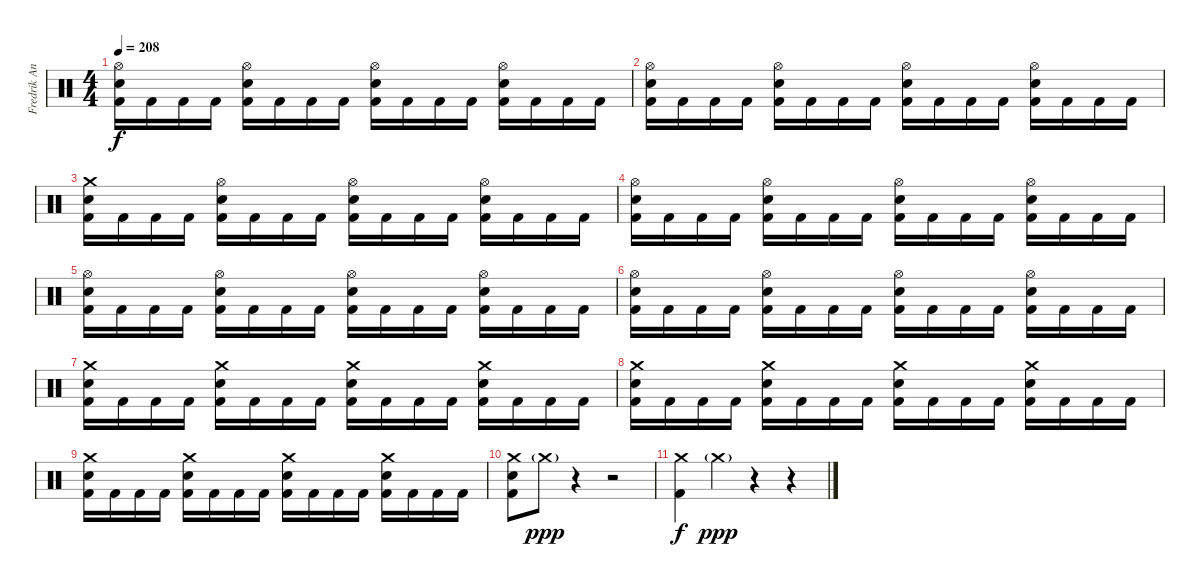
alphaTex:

\track ("Fredrik Andersson" "Fredrik An") {instrument percussion}
\staff {score}
\articulation defaults
\ts (4 4)
\tempo 208
\clef neutral
\ks c
("Hi-Hat (open)" "Electric Snare (hit)" "Kick (hit) 2").16{dy f} "Kick (hit) 2".16 "Kick (hit) 2".16 "Kick (hit) 2".16 ("Hi-Hat (open)" "Electric Snare (hit)" "Kick (hit) 2").16 "Kick (hit) 2".16 "Kick (hit) 2".16 "Kick (hit) 2".16 ("Hi-Hat (open)" "Electric Snare (hit)" "Kick (hit) 2").16 "Kick (hit) 2".16 "Kick (hit) 2".16 "Kick (hit) 2".16 ("Hi-Hat (open)" "Electric Snare (hit)" "Kick (hit) 2").16 "Kick (hit) 2".16 "Kick (hit) 2".16 "Kick (hit) 2".16 |
("Hi-Hat (open)" "Electric Snare (hit)" "Kick (hit) 2").16 "Kick (hit) 2".16 "Kick (hit) 2".16 "Kick (hit) 2".16 ("Hi-Hat (open)" "Electric Snare (hit)" "Kick (hit) 2").16 "Kick (hit) 2".16 "Kick (hit) 2".16 "Kick (hit) 2".16 ("Hi-Hat (open)" "Electric Snare (hit)" "Kick (hit) 2").16 "Kick (hit) 2".16 "Kick (hit) 2".16 "Kick (hit) 2".16 ("Hi-Hat (open)" "Electric Snare (hit)" "Kick (hit) 2").16 "Kick (hit) 2".16 "Kick (hit) 2".16 "Kick (hit) 2".16 |
("Crash medium (hit)" "Electric Snare (hit)" "Kick (hit) 2").16 "Kick (hit) 2".16 "Kick (hit) 2".16 "Kick (hit) 2".16 ("Hi-Hat (open)" "Electric Snare (hit)" "Kick (hit) 2").16 "Kick (hit) 2".16 "Kick (hit) 2".16 "Kick (hit) 2".16 ("Hi-Hat (open)" "Electric Snare (hit)" "Kick (hit) 2").16 "Kick (hit) 2".16 "Kick (hit) 2".16 "Kick (hit) 2".16 ("Hi-Hat (open)" "Electric Snare (hit)" "Kick (hit) 2").16 "Kick (hit) 2".16 "Kick (hit) 2".16 "Kick (hit) 2".16 |
("Hi-Hat (open)" "Electric Snare (hit)" "Kick (hit) 2").16 "Kick (hit) 2".16 "Kick (hit) 2".16 "Kick (hit) 2".16 ("Hi-Hat (open)" "Electric Snare (hit)" "Kick (hit) 2").16 "Kick (hit) 2".16 "Kick (hit) 2".16 "Kick (hit) 2".16 ("Hi-Hat (open)" "Electric Snare (hit)" "Kick (hit) 2").16 "Kick (hit) 2".16 "Kick (hit) 2".16 "Kick (hit) 2".16 ("Hi-Hat (open)" "Electric Snare (hit)" "Kick (hit) 2").16 "Kick (hit) 2".16 "Kick (hit) 2".16 "Kick (hit) 2".16 |
("Hi-Hat (open)" "Electric Snare (hit)" "Kick (hit) 2").16 "Kick (hit) 2".16 "Kick (hit) 2".16 "Kick (hit) 2".16 ("Hi-Hat (open)" "Electric Snare (hit)" "Kick (hit) 2").16 "Kick (hit) 2".16 "Kick (hit) 2".16 "Kick (hit) 2".16 ("Hi-Hat (open)" "Electric Snare (hit)" "Kick (hit) 2").16 "Kick (hit) 2".16 "Kick (hit) 2".16 "Kick (hit) 2".16 ("Hi-Hat (open)" "Electric Snare (hit)" "Kick (hit) 2").16 "Kick (hit) 2".16 "Kick (hit) 2".16 "Kick (hit) 2".16 |
("Hi-Hat (open)" "Electric Snare (hit)" "Kick (hit) 2").16 "Kick (hit) 2".16 "Kick (hit) 2".16 "Kick (hit) 2".16 ("Hi-Hat (open)" "Electric Snare (hit)" "Kick (hit) 2").16 "Kick (hit) 2".16 "Kick (hit) 2".16 "Kick (hit) 2".16 ("Hi-Hat (open)" "Electric Snare (hit)" "Kick (hit) 2").16 "Kick (hit) 2".16 "Kick (hit) 2".16 "Kick (hit) 2".16 ("Hi-Hat (open)" "Electric Snare (hit)" "Kick (hit) 2").16 "Kick (hit) 2".16 "Kick (hit) 2".16 "Kick (hit) 2".16 |
("Crash medium (hit)" "Electric Snare (hit)" "Kick (hit) 2").16 "Kick (hit) 2".16 "Kick (hit) 2".16 "Kick (hit) 2".16 ("Crash medium (hit)" "Electric Snare (hit)" "Kick (hit) 2").16 "Kick (hit) 2".16 "Kick (hit) 2".16 "Kick (hit) 2".16 ("Crash medium (hit)" "Electric Snare (hit)" "Kick (hit) 2").16 "Kick (hit) 2".16 "Kick (hit) 2".16 "Kick (hit) 2".16 ("Crash medium (hit)" "Electric Snare (hit)" "Kick (hit) 2").16 "Kick (hit) 2".16 "Kick (hit) 2".16 "Kick (hit) 2".16 |
("Crash medium (hit)" "Electric Snare (hit)" "Kick (hit) 2").16 "Kick (hit) 2".16 "Kick (hit) 2".16 "Kick (hit) 2".16 ("Crash medium (hit)" "Electric Snare (hit)" "Kick (hit) 2").16 "Kick (hit) 2".16 "Kick (hit) 2".16 "Kick (hit) 2".16 ("Crash medium (hit)" "Electric Snare (hit)" "Kick (hit) 2").16 "Kick (hit) 2".16 "Kick (hit) 2".16 "Kick (hit) 2".16 ("Crash medium (hit)" "Electric Snare (hit)" "Kick (hit) 2").16 "Kick (hit) 2".16 "Kick (hit) 2".16 "Kick (hit) 2".16 |
("Crash medium (hit)" "Electric Snare (hit)" "Kick (hit) 2").16 "Kick (hit) 2".16 "Kick (hit) 2".16 "Kick (hit) 2".16 ("Crash medium (hit)" "Electric Snare (hit)" "Kick (hit) 2").16 "Kick (hit) 2".16 "Kick (hit) 2".16 "Kick (hit) 2".16 ("Crash medium (hit)" "Electric Snare (hit)" "Kick (hit) 2").16 "Kick (hit) 2".16 "Kick (hit) 2".16 "Kick (hit) 2".16 ("Crash medium (hit)" "Electric Snare (hit)" "Kick (hit) 2").16 "Kick (hit) 2".16 "Kick (hit) 2".16 "Kick (hit) 2".16 |
("Crash medium (hit)" "Electric Snare (hit)" "Kick (hit) 2").8 "Crash medium (hit)"{g}.8{dy ppp} r.4 r.2 |
("Crash medium (hit)" "Kick (hit) 2").4{dy f} "Crash medium (hit)"{g}.4{dy ppp} r.4 r.4
